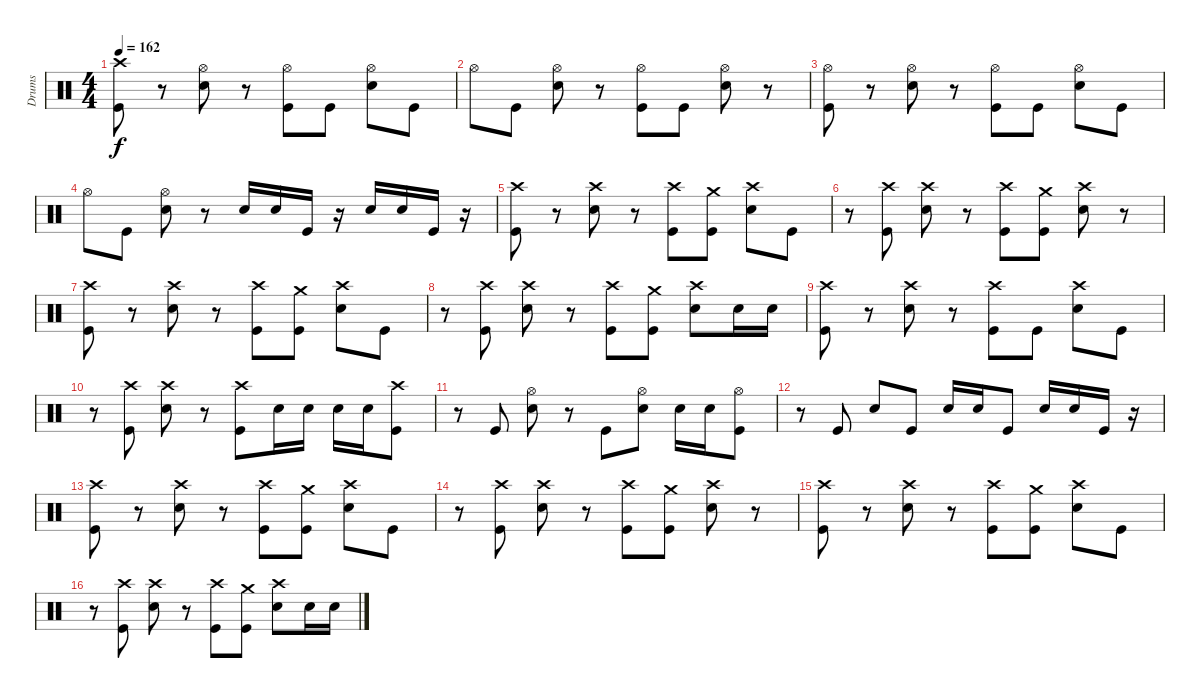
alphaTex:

\track ("Drums" "Drums") {instrument percussion}
\staff {score}
\articulation defaults
\ts (4 4)
\tempo 162
\clef neutral
\ks c
("Crash high (hit)" "Kick (hit)").8{dy f} r.8 ("Hi-Hat (open)" "Snare (hit) 2").8 r.8 ("Hi-Hat (open)" "Kick (hit)").8 "Kick (hit)".8 ("Hi-Hat (open)" "Snare (hit) 2").8 "Kick (hit)".8 |
"Hi-Hat (open)".8 "Kick (hit)".8 ("Hi-Hat (open)" "Snare (hit) 2").8 r.8 ("Hi-Hat (open)" "Kick (hit)").8 "Kick (hit)".8 ("Hi-Hat (open)" "Snare (hit) 2").8 r.8 |
("Hi-Hat (open)" "Kick (hit)").8 r.8 ("Hi-Hat (open)" "Snare (hit) 2").8 r.8 ("Hi-Hat (open)" "Kick (hit)").8 "Kick (hit)".8 ("Hi-Hat (open)" "Snare (hit) 2").8 "Kick (hit)".8 |
"Hi-Hat (open)".8 "Kick (hit)".8 ("Hi-Hat (open)" "Snare (hit) 2").8 r.8 "Snare (hit) 2".16 "Snare (hit) 2".16 "Kick (hit)".16 r.16 "Snare (hit) 2".16 "Snare (hit) 2".16 "Kick (hit)".16 r.16 |
("Crash high (hit)" "Kick (hit)").8 r.8 ("Crash high (hit)" "Snare (hit) 2").8 r.8 ("Crash high (hit)" "Kick (hit)").8 ("Crash medium (hit)" "Kick (hit)").8 ("Crash high (hit)" "Snare (hit) 2").8 "Kick (hit)".8 |
r.8 ("Crash high (hit)" "Kick (hit)").8 ("Crash high (hit)" "Snare (hit) 2").8 r.8 ("Crash high (hit)" "Kick (hit)").8 ("Crash medium (hit)" "Kick (hit)").8 ("Crash high (hit)" "Snare (hit) 2").8 r.8 |
("Crash high (hit)" "Kick (hit)").8 r.8 ("Crash high (hit)" "Snare (hit) 2").8 r.8 ("Crash high (hit)" "Kick (hit)").8 ("Crash medium (hit)" "Kick (hit)").8 ("Crash high (hit)" "Snare (hit) 2").8 "Kick (hit)".8 |
r.8 ("Crash high (hit)" "Kick (hit)").8 ("Crash high (hit)" "Snare (hit) 2").8 r.8 ("Crash high (hit)" "Kick (hit)").8 ("Crash medium (hit)" "Kick (hit)").8 ("Crash high (hit)" "Snare (hit) 2").8 "Snare (hit) 2".16 "Snare (hit) 2".16 |
("Crash high (hit)" "Kick (hit)").8 r.8 ("Crash high (hit)" "Snare (hit) 2").8 r.8 ("Crash high (hit)" "Kick (hit)").8 "Kick (hit)".8 ("Crash high (hit)" "Snare (hit) 2").8 "Kick (hit)".8 |
r.8 ("Crash high (hit)" "Kick (hit)").8 ("Crash high (hit)" "Snare (hit) 2").8 r.8 ("Crash high (hit)" "Kick (hit)").8 "Snare (hit) 2".16 "Snare (hit) 2".16 "Snare (hit) 2".16 "Snare (hit) 2".16 ("Crash high (hit)" "Kick (hit)").8 |
r.8 "Kick (hit)".8 ("Hi-Hat (open)" "Snare (hit) 2").8 r.8 "Kick (hit)".8 ("Hi-Hat (open)" "Snare (hit) 2").8 "Snare (hit) 2".16 "Snare (hit) 2".16 ("Hi-Hat (open)" "Kick (hit)").8 |
r.8 "Kick (hit)".8 "Snare (hit) 2".8 "Kick (hit)".8 "Snare (hit) 2".16 "Snare (hit) 2".16 "Kick (hit)".8 "Snare (hit) 2".16 "Snare (hit) 2".16 "Kick (hit)".16 r.16 |
("Crash high (hit)" "Kick (hit)").8 r.8 ("Crash high (hit)" "Snare (hit) 2").8 r.8 ("Crash high (hit)" "Kick (hit)").8 ("Crash medium (hit)" "Kick (hit)").8 ("Crash high (hit)" "Snare (hit) 2").8 "Kick (hit)".8 |
r.8 ("Crash high (hit)" "Kick (hit)").8 ("Crash high (hit)" "Snare (hit) 2").8 r.8 ("Crash high (hit)" "Kick (hit)").8 ("Crash medium (hit)" "Kick (hit)").8 ("Crash high (hit)" "Snare (hit) 2").8 r.8 |
("Crash high (hit)" "Kick (hit)").8 r.8 ("Crash high (hit)" "Snare (hit) 2").8 r.8 ("Crash high (hit)" "Kick (hit)").8 ("Crash medium (hit)" "Kick (hit)").8 ("Crash high (hit)" "Snare (hit) 2").8 "Kick (hit)".8 |
r.8 ("Crash high (hit)" "Kick (hit)").8 ("Crash high (hit)" "Snare (hit) 2").8 r.8 ("Crash high (hit)" "Kick (hit)").8 ("Crash medium (hit)" "Kick (hit)").8 ("Crash high (hit)" "Snare (hit) 2").8 "Snare (hit) 2".16 "Snare (hit) 2".16
